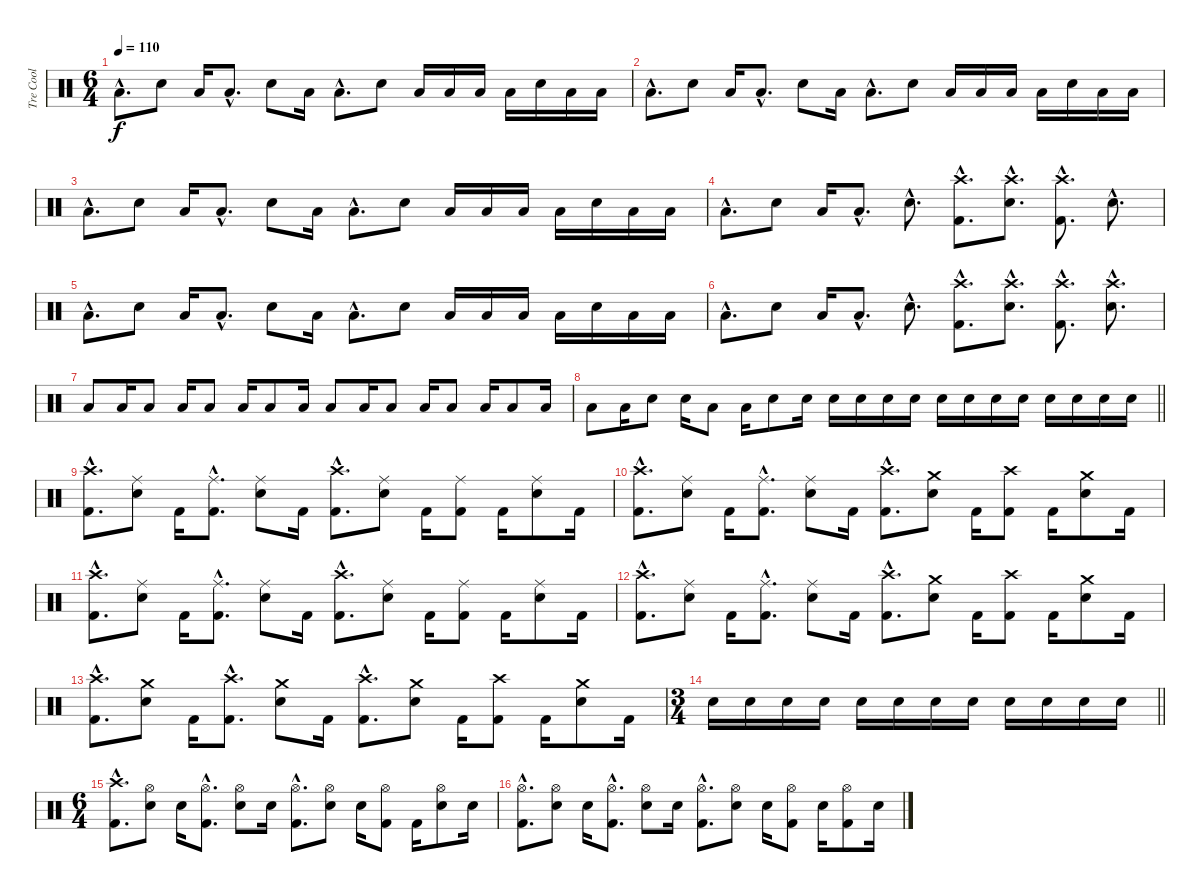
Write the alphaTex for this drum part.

\track ("Tre Cool" "Tre Cool") {instrument percussion}
\staff {score}
\articulation defaults
\ts (6 4)
\tempo 110
\clef neutral
\ks c "Low Floor Tom (hit)"{hac}.8{d dy f} "Electric Snare (hit)".8 "Low Floor Tom (hit)".16 "Low Floor Tom (hit)"{hac}.8{d} "Electric Snare (hit)".8 "Low Floor Tom (hit)".16 "Low Floor Tom (hit)"{hac}.8{d} "Electric Snare (hit)".8 "Low Floor Tom (hit)".16 "Low Floor Tom (hit)".16 "Low Floor Tom (hit)".16 "Low Floor Tom (hit)".16 "Electric Snare (hit)".16 "Low Floor Tom (hit)".16 "Low Floor Tom (hit)".16
|
"Low Floor Tom (hit)"{hac}.8{d} "Electric Snare (hit)".8 "Low Floor Tom (hit)".16 "Low Floor Tom (hit)"{hac}.8{d} "Electric Snare (hit)".8 "Low Floor Tom (hit)".16 "Low Floor Tom (hit)"{hac}.8{d} "Electric Snare (hit)".8 "Low Floor Tom (hit)".16 "Low Floor Tom (hit)".16 "Low Floor Tom (hit)".16 "Low Floor Tom (hit)".16 "Electric Snare (hit)".16 "Low Floor Tom (hit)".16 "Low Floor Tom (hit)".16 |
"Low Floor Tom (hit)"{hac}.8{d} "Electric Snare (hit)".8 "Low Floor Tom (hit)".16 "Low Floor Tom (hit)"{hac}.8{d} "Electric Snare (hit)".8 "Low Floor Tom (hit)".16 "Low Floor Tom (hit)"{hac}.8{d} "Electric Snare (hit)".8 "Low Floor Tom (hit)".16 "Low Floor Tom (hit)".16 "Low Floor Tom (hit)".16 "Low Floor Tom (hit)".16 "Electric Snare (hit)".16 "Low Floor Tom (hit)".16 "Low Floor Tom (hit)".16 |
"Low Floor Tom (hit)"{hac}.8{d} "Electric Snare (hit)".8 "Low Floor Tom (hit)".16 "Low Floor Tom (hit)"{hac}.8{d} "Electric Snare (hit)"{hac}.8{d} ("Crash high (hit)"{hac} "Kick (hit) 2"{hac}).8{d} ("Crash high (hit)"{hac} "Electric Snare (hit)"{hac}).8{d} ("Crash high (hit)"{hac} "Kick (hit) 2"{hac}).8{d} "Electric Snare (hit)"{hac}.8{d} |
"Low Floor Tom (hit)"{hac}.8{d} "Electric Snare (hit)".8 "Low Floor Tom (hit)".16 "Low Floor Tom (hit)"{hac}.8{d} "Electric Snare (hit)".8 "Low Floor Tom (hit)".16 "Low Floor Tom (hit)"{hac}.8{d} "Electric Snare (hit)".8 "Low Floor Tom (hit)".16 "Low Floor Tom (hit)".16 "Low Floor Tom (hit)".16 "Low Floor Tom (hit)".16 "Electric Snare (hit)".16 "Low Floor Tom (hit)".16 "Low Floor Tom (hit)".16 |
"Low Floor Tom (hit)"{hac}.8{d} "Electric Snare (hit)".8 "Low Floor Tom (hit)".16 "Low Floor Tom (hit)"{hac}.8{d} "Electric Snare (hit)"{hac}.8{d} ("Crash high (hit)"{hac} "Kick (hit) 2"{hac}).8{d} ("Crash high (hit)"{hac} "Electric Snare (hit)"{hac}).8{d} ("Crash high (hit)"{hac} "Kick (hit) 2"{hac}).8{d} ("Crash high (hit)"{hac} "Electric Snare (hit)"{hac}).8{d} |
"Low Floor Tom (hit)".8 "Low Floor Tom (hit)".16 "Low Floor Tom (hit)".8 "Low Floor Tom (hit)".16 "Low Floor Tom (hit)".8 "Low Floor Tom (hit)".16 "Low Floor Tom (hit)".8 "Low Floor Tom (hit)".16 "Low Floor Tom (hit)".8 "Low Floor Tom (hit)".16 "Low Floor Tom (hit)".8 "Low Floor Tom (hit)".16 "Low Floor Tom (hit)".8 "Low Floor Tom (hit)".16 "Low Floor Tom (hit)".8 "Low Floor Tom (hit)".16 |
\barLineRight lightlight "Low Floor Tom (hit)".8 "Low Floor Tom (hit)".16 "Electric Snare (hit)".8 "Electric Snare (hit)".16 "Low Floor Tom (hit)".8 "Low Floor Tom (hit)".16 "Electric Snare (hit)".8 "Electric Snare (hit)".16 "Electric Snare (hit)".16 "Electric Snare (hit)".16 "Electric Snare (hit)".16 "Electric Snare (hit)".16 "Electric Snare (hit)".16 "Electric Snare (hit)".16 "Electric Snare (hit)".16 "Electric Snare (hit)".16 "Electric Snare (hit)".16 "Electric Snare (hit)".16 "Electric Snare (hit)".16 "Electric Snare (hit)".16
|
("Crash high (hit)"{hac} "Kick (hit) 2"{hac}).8{d} ("Ride (middle)" "Electric Snare (hit)").8 "Kick (hit) 2".16 ("Ride (middle)"{hac} "Kick (hit) 2"{hac}).8{d} ("Ride (middle)" "Electric Snare (hit)").8 "Kick (hit) 2".16 ("Crash high (hit)"{hac} "Kick (hit) 2"{hac}).8{d} ("Ride (middle)" "Electric Snare (hit)").8 "Kick (hit) 2".16 ("Ride (middle)" "Kick (hit) 2").8 "Kick (hit) 2".16 ("Ride (middle)" "Electric Snare (hit)").8 "Kick (hit) 2".16 |
("Crash high (hit)"{hac} "Kick (hit) 2"{hac}).8{d} ("Ride (middle)" "Electric Snare (hit)").8 "Kick (hit) 2".16 ("Ride (middle)"{hac} "Kick (hit) 2"{hac}).8{d} ("Ride (middle)" "Electric Snare (hit)").8 "Kick (hit) 2".16 ("Crash high (hit)"{hac} "Kick (hit) 2"{hac}).8{d} ("Crash medium (hit)" "Electric Snare (hit)").8 "Kick (hit) 2".16 ("Crash high (hit)" "Kick (hit) 2").8 "Kick (hit) 2".16 ("Crash medium (hit)" "Electric Snare (hit)").8 "Kick (hit) 2".16 |
("Crash high (hit)"{hac} "Kick (hit) 2"{hac}).8{d} ("Ride (middle)" "Electric Snare (hit)").8 "Kick (hit) 2".16 ("Ride (middle)"{hac} "Kick (hit) 2"{hac}).8{d} ("Ride (middle)" "Electric Snare (hit)").8 "Kick (hit) 2".16 ("Crash high (hit)"{hac} "Kick (hit) 2"{hac}).8{d} ("Ride (middle)" "Electric Snare (hit)").8 "Kick (hit) 2".16 ("Ride (middle)" "Kick (hit) 2").8 "Kick (hit) 2".16 ("Ride (middle)" "Electric Snare (hit)").8 "Kick (hit) 2".16 |
("Crash high (hit)"{hac} "Kick (hit) 2"{hac}).8{d} ("Ride (middle)" "Electric Snare (hit)").8 "Kick (hit) 2".16 ("Ride (middle)"{hac} "Kick (hit) 2"{hac}).8{d} ("Ride (middle)" "Electric Snare (hit)").8 "Kick (hit) 2".16 ("Crash high (hit)"{hac} "Kick (hit) 2"{hac}).8{d} ("Crash medium (hit)" "Electric Snare (hit)").8 "Kick (hit) 2".16 ("Crash high (hit)" "Kick (hit) 2").8 "Kick (hit) 2".16 ("Crash medium (hit)" "Electric Snare (hit)").8 "Kick (hit) 2".16 |
("Crash high (hit)"{hac} "Kick (hit) 2"{hac}).8{d} ("Crash medium (hit)" "Electric Snare (hit)").8 "Kick (hit) 2".16 ("Crash high (hit)"{hac} "Kick (hit) 2"{hac}).8{d} ("Crash medium (hit)" "Electric Snare (hit)").8 "Kick (hit) 2".16 ("Crash high (hit)"{hac} "Kick (hit) 2"{hac}).8{d} ("Crash medium (hit)" "Electric Snare (hit)").8 "Kick (hit) 2".16 ("Crash high (hit)" "Kick (hit) 2").8 "Kick (hit) 2".16 ("Crash medium (hit)" "Electric Snare (hit)").8 "Kick (hit) 2".16 |
\ts (3 4)
\barLineRight lightlight "Electric Snare (hit)".16 "Electric Snare (hit)".16 "Electric Snare (hit)".16 "Electric Snare (hit)".16 "Electric Snare (hit)".16 "Electric Snare (hit)".16 "Electric Snare (hit)".16 "Electric Snare (hit)".16 "Electric Snare (hit)".16 "Electric Snare (hit)".16 "Electric Snare (hit)".16 "Electric Snare (hit)".16
|
\ts (6 4)
("Crash high (hit)"{hac} "Kick (hit) 2"{hac}).8{d} ("Hi-Hat (open)" "Electric Snare (hit)").8 "Electric Snare (hit)".16 ("Hi-Hat (open)"{hac} "Kick (hit) 2"{hac}).8{d} ("Hi-Hat (open)" "Electric Snare (hit)").8 "Electric Snare (hit)".16 ("Hi-Hat (open)"{hac} "Kick (hit) 2"{hac}).8{d} ("Hi-Hat (open)" "Electric Snare (hit)").8 "Electric Snare (hit)".16 ("Hi-Hat (open)" "Kick (hit) 2").8 "Kick (hit) 2".16 ("Hi-Hat (open)" "Electric Snare (hit)").8 "Electric Snare (hit)".16 |
("Hi-Hat (open)"{hac} "Kick (hit) 2"{hac}).8{d} ("Hi-Hat (open)" "Electric Snare (hit)").8 "Electric Snare (hit)".16 ("Hi-Hat (open)"{hac} "Kick (hit) 2"{hac}).8{d} ("Hi-Hat (open)" "Electric Snare (hit)").8 "Electric Snare (hit)".16 ("Hi-Hat (open)"{hac} "Kick (hit) 2"{hac}).8{d} ("Hi-Hat (open)" "Electric Snare (hit)").8 "Electric Snare (hit)".16 ("Hi-Hat (open)" "Kick (hit) 2").8 "Electric Snare (hit)".16 ("Hi-Hat (open)" "Kick (hit) 2").8 "Electric Snare (hit)".16
